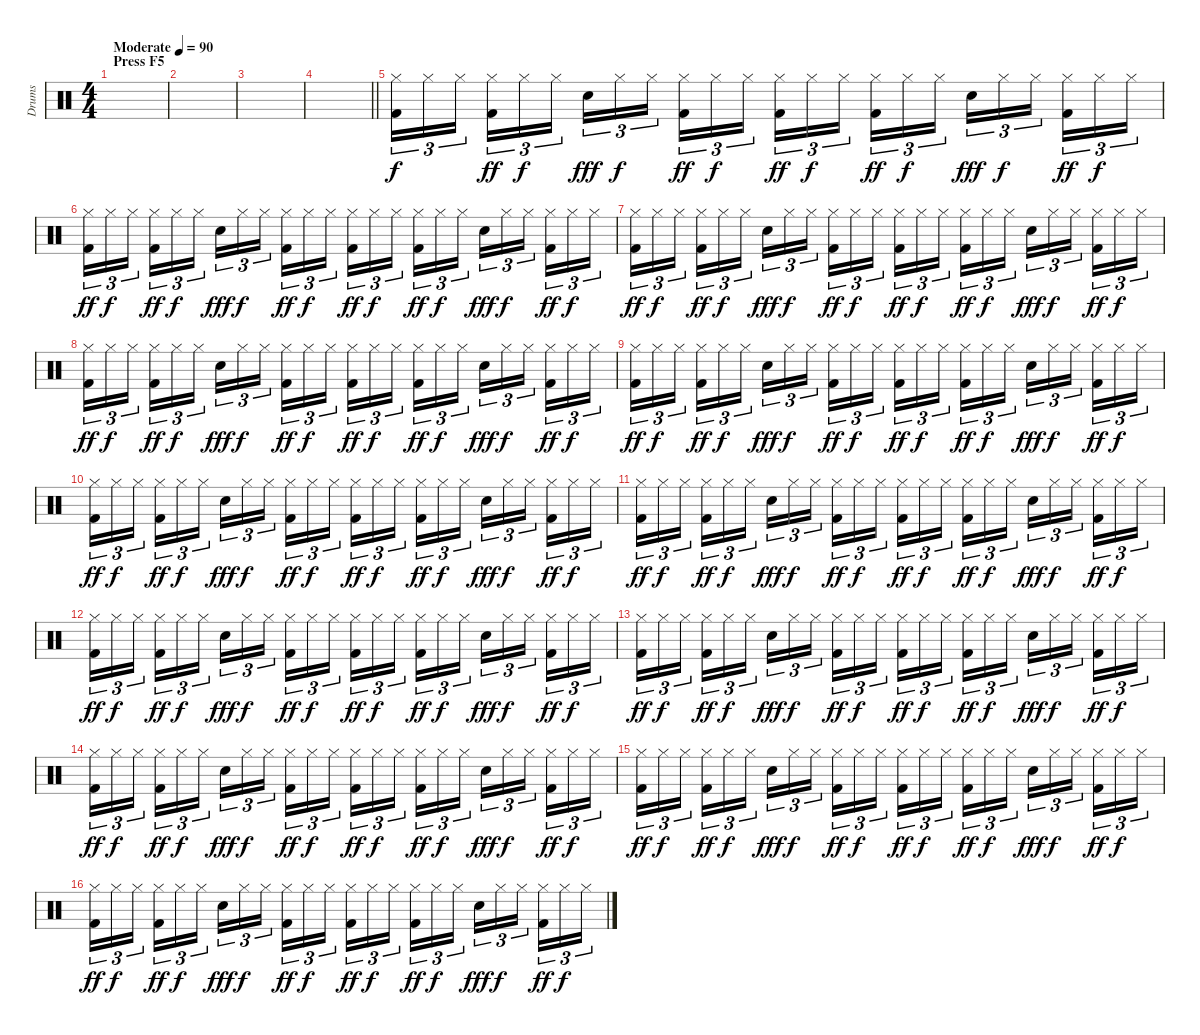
\track ("Drums" "Drums") {instrument percussion}
\staff {score}
\articulation defaults
\ts (4 4)
\section ("" "Press F5")
\tempo (90 "Moderate")
\clef neutral
\ks c
|
|
|
\barLineRight lightlight
|
\section ("" "")
("Hi-Hat (closed)" "Kick (hit) 2").16{tu (3 2)} "Hi-Hat (closed)".16{tu (3 2) dy f} "Hi-Hat (closed)".16{tu (3 2) beam splitsecondary} ("Hi-Hat (closed)" "Kick (hit) 2").16{tu (3 2) dy ff} "Hi-Hat (closed)".16{tu (3 2) dy f} "Hi-Hat (closed)".16{tu (3 2)} "Snare (hit) 2".16{tu (3 2) dy fff} "Hi-Hat (closed)".16{tu (3 2) dy f} "Hi-Hat (closed)".16{tu (3 2) beam splitsecondary} ("Hi-Hat (closed)" "Kick (hit) 2").16{tu (3 2) dy ff} "Hi-Hat (closed)".16{tu (3 2) dy f} "Hi-Hat (closed)".16{tu (3 2)} ("Hi-Hat (closed)" "Kick (hit) 2").16{tu (3 2) dy ff} "Hi-Hat (closed)".16{tu (3 2) dy f} "Hi-Hat (closed)".16{tu (3 2) beam splitsecondary} ("Hi-Hat (closed)" "Kick (hit) 2").16{tu (3 2) dy ff} "Hi-Hat (closed)".16{tu (3 2) dy f} "Hi-Hat (closed)".16{tu (3 2)} "Snare (hit) 2".16{tu (3 2) dy fff} "Hi-Hat (closed)".16{tu (3 2) dy f} "Hi-Hat (closed)".16{tu (3 2) beam splitsecondary} ("Hi-Hat (closed)" "Kick (hit) 2").16{tu (3 2) dy ff} "Hi-Hat (closed)".16{tu (3 2) dy f} "Hi-Hat (closed)".16{tu (3 2)} |
("Hi-Hat (closed)" "Kick (hit) 2").16{tu (3 2) dy ff} "Hi-Hat (closed)".16{tu (3 2) dy f} "Hi-Hat (closed)".16{tu (3 2) beam splitsecondary} ("Hi-Hat (closed)" "Kick (hit) 2").16{tu (3 2) dy ff} "Hi-Hat (closed)".16{tu (3 2) dy f} "Hi-Hat (closed)".16{tu (3 2)} "Snare (hit) 2".16{tu (3 2) dy fff} "Hi-Hat (closed)".16{tu (3 2) dy f} "Hi-Hat (closed)".16{tu (3 2) beam splitsecondary} ("Hi-Hat (closed)" "Kick (hit) 2").16{tu (3 2) dy ff} "Hi-Hat (closed)".16{tu (3 2) dy f} "Hi-Hat (closed)".16{tu (3 2)} ("Hi-Hat (closed)" "Kick (hit) 2").16{tu (3 2) dy ff} "Hi-Hat (closed)".16{tu (3 2) dy f} "Hi-Hat (closed)".16{tu (3 2) beam splitsecondary} ("Hi-Hat (closed)" "Kick (hit) 2").16{tu (3 2) dy ff} "Hi-Hat (closed)".16{tu (3 2) dy f} "Hi-Hat (closed)".16{tu (3 2)} "Snare (hit) 2".16{tu (3 2) dy fff} "Hi-Hat (closed)".16{tu (3 2) dy f} "Hi-Hat (closed)".16{tu (3 2) beam splitsecondary} ("Hi-Hat (closed)" "Kick (hit) 2").16{tu (3 2) dy ff} "Hi-Hat (closed)".16{tu (3 2) dy f} "Hi-Hat (closed)".16{tu (3 2)} |
("Hi-Hat (closed)" "Kick (hit) 2").16{tu (3 2) dy ff} "Hi-Hat (closed)".16{tu (3 2) dy f} "Hi-Hat (closed)".16{tu (3 2) beam splitsecondary} ("Hi-Hat (closed)" "Kick (hit) 2").16{tu (3 2) dy ff} "Hi-Hat (closed)".16{tu (3 2) dy f} "Hi-Hat (closed)".16{tu (3 2)} "Snare (hit) 2".16{tu (3 2) dy fff} "Hi-Hat (closed)".16{tu (3 2) dy f} "Hi-Hat (closed)".16{tu (3 2) beam splitsecondary} ("Hi-Hat (closed)" "Kick (hit) 2").16{tu (3 2) dy ff} "Hi-Hat (closed)".16{tu (3 2) dy f} "Hi-Hat (closed)".16{tu (3 2)} ("Hi-Hat (closed)" "Kick (hit) 2").16{tu (3 2) dy ff} "Hi-Hat (closed)".16{tu (3 2) dy f} "Hi-Hat (closed)".16{tu (3 2) beam splitsecondary} ("Hi-Hat (closed)" "Kick (hit) 2").16{tu (3 2) dy ff} "Hi-Hat (closed)".16{tu (3 2) dy f} "Hi-Hat (closed)".16{tu (3 2)} "Snare (hit) 2".16{tu (3 2) dy fff} "Hi-Hat (closed)".16{tu (3 2) dy f} "Hi-Hat (closed)".16{tu (3 2) beam splitsecondary} ("Hi-Hat (closed)" "Kick (hit) 2").16{tu (3 2) dy ff} "Hi-Hat (closed)".16{tu (3 2) dy f} "Hi-Hat (closed)".16{tu (3 2)} |
("Hi-Hat (closed)" "Kick (hit) 2").16{tu (3 2) dy ff} "Hi-Hat (closed)".16{tu (3 2) dy f} "Hi-Hat (closed)".16{tu (3 2) beam splitsecondary} ("Hi-Hat (closed)" "Kick (hit) 2").16{tu (3 2) dy ff} "Hi-Hat (closed)".16{tu (3 2) dy f} "Hi-Hat (closed)".16{tu (3 2)} "Snare (hit) 2".16{tu (3 2) dy fff} "Hi-Hat (closed)".16{tu (3 2) dy f} "Hi-Hat (closed)".16{tu (3 2) beam splitsecondary} ("Hi-Hat (closed)" "Kick (hit) 2").16{tu (3 2) dy ff} "Hi-Hat (closed)".16{tu (3 2) dy f} "Hi-Hat (closed)".16{tu (3 2)} ("Hi-Hat (closed)" "Kick (hit) 2").16{tu (3 2) dy ff} "Hi-Hat (closed)".16{tu (3 2) dy f} "Hi-Hat (closed)".16{tu (3 2) beam splitsecondary} ("Hi-Hat (closed)" "Kick (hit) 2").16{tu (3 2) dy ff} "Hi-Hat (closed)".16{tu (3 2) dy f} "Hi-Hat (closed)".16{tu (3 2)} "Snare (hit) 2".16{tu (3 2) dy fff} "Hi-Hat (closed)".16{tu (3 2) dy f} "Hi-Hat (closed)".16{tu (3 2) beam splitsecondary} ("Hi-Hat (closed)" "Kick (hit) 2").16{tu (3 2) dy ff} "Hi-Hat (closed)".16{tu (3 2) dy f} "Hi-Hat (closed)".16{tu (3 2)} |
("Hi-Hat (closed)" "Kick (hit) 2").16{tu (3 2) dy ff} "Hi-Hat (closed)".16{tu (3 2) dy f} "Hi-Hat (closed)".16{tu (3 2) beam splitsecondary} ("Hi-Hat (closed)" "Kick (hit) 2").16{tu (3 2) dy ff} "Hi-Hat (closed)".16{tu (3 2) dy f} "Hi-Hat (closed)".16{tu (3 2)} "Snare (hit) 2".16{tu (3 2) dy fff} "Hi-Hat (closed)".16{tu (3 2) dy f} "Hi-Hat (closed)".16{tu (3 2) beam splitsecondary} ("Hi-Hat (closed)" "Kick (hit) 2").16{tu (3 2) dy ff} "Hi-Hat (closed)".16{tu (3 2) dy f} "Hi-Hat (closed)".16{tu (3 2)} ("Hi-Hat (closed)" "Kick (hit) 2").16{tu (3 2) dy ff} "Hi-Hat (closed)".16{tu (3 2) dy f} "Hi-Hat (closed)".16{tu (3 2) beam splitsecondary} ("Hi-Hat (closed)" "Kick (hit) 2").16{tu (3 2) dy ff} "Hi-Hat (closed)".16{tu (3 2) dy f} "Hi-Hat (closed)".16{tu (3 2)} "Snare (hit) 2".16{tu (3 2) dy fff} "Hi-Hat (closed)".16{tu (3 2) dy f} "Hi-Hat (closed)".16{tu (3 2) beam splitsecondary} ("Hi-Hat (closed)" "Kick (hit) 2").16{tu (3 2) dy ff} "Hi-Hat (closed)".16{tu (3 2) dy f} "Hi-Hat (closed)".16{tu (3 2)} |
("Hi-Hat (closed)" "Kick (hit) 2").16{tu (3 2) dy ff} "Hi-Hat (closed)".16{tu (3 2) dy f} "Hi-Hat (closed)".16{tu (3 2) beam splitsecondary} ("Hi-Hat (closed)" "Kick (hit) 2").16{tu (3 2) dy ff} "Hi-Hat (closed)".16{tu (3 2) dy f} "Hi-Hat (closed)".16{tu (3 2)} "Snare (hit) 2".16{tu (3 2) dy fff} "Hi-Hat (closed)".16{tu (3 2) dy f} "Hi-Hat (closed)".16{tu (3 2) beam splitsecondary} ("Hi-Hat (closed)" "Kick (hit) 2").16{tu (3 2) dy ff} "Hi-Hat (closed)".16{tu (3 2) dy f} "Hi-Hat (closed)".16{tu (3 2)} ("Hi-Hat (closed)" "Kick (hit) 2").16{tu (3 2) dy ff} "Hi-Hat (closed)".16{tu (3 2) dy f} "Hi-Hat (closed)".16{tu (3 2) beam splitsecondary} ("Hi-Hat (closed)" "Kick (hit) 2").16{tu (3 2) dy ff} "Hi-Hat (closed)".16{tu (3 2) dy f} "Hi-Hat (closed)".16{tu (3 2)} "Snare (hit) 2".16{tu (3 2) dy fff} "Hi-Hat (closed)".16{tu (3 2) dy f} "Hi-Hat (closed)".16{tu (3 2) beam splitsecondary} ("Hi-Hat (closed)" "Kick (hit) 2").16{tu (3 2) dy ff} "Hi-Hat (closed)".16{tu (3 2) dy f} "Hi-Hat (closed)".16{tu (3 2)} |
("Hi-Hat (closed)" "Kick (hit) 2").16{tu (3 2) dy ff} "Hi-Hat (closed)".16{tu (3 2) dy f} "Hi-Hat (closed)".16{tu (3 2) beam splitsecondary} ("Hi-Hat (closed)" "Kick (hit) 2").16{tu (3 2) dy ff} "Hi-Hat (closed)".16{tu (3 2) dy f} "Hi-Hat (closed)".16{tu (3 2)} "Snare (hit) 2".16{tu (3 2) dy fff} "Hi-Hat (closed)".16{tu (3 2) dy f} "Hi-Hat (closed)".16{tu (3 2) beam splitsecondary} ("Hi-Hat (closed)" "Kick (hit) 2").16{tu (3 2) dy ff} "Hi-Hat (closed)".16{tu (3 2) dy f} "Hi-Hat (closed)".16{tu (3 2)} ("Hi-Hat (closed)" "Kick (hit) 2").16{tu (3 2) dy ff} "Hi-Hat (closed)".16{tu (3 2) dy f} "Hi-Hat (closed)".16{tu (3 2) beam splitsecondary} ("Hi-Hat (closed)" "Kick (hit) 2").16{tu (3 2) dy ff} "Hi-Hat (closed)".16{tu (3 2) dy f} "Hi-Hat (closed)".16{tu (3 2)} "Snare (hit) 2".16{tu (3 2) dy fff} "Hi-Hat (closed)".16{tu (3 2) dy f} "Hi-Hat (closed)".16{tu (3 2) beam splitsecondary} ("Hi-Hat (closed)" "Kick (hit) 2").16{tu (3 2) dy ff} "Hi-Hat (closed)".16{tu (3 2) dy f} "Hi-Hat (closed)".16{tu (3 2)} |
("Hi-Hat (closed)" "Kick (hit) 2").16{tu (3 2) dy ff} "Hi-Hat (closed)".16{tu (3 2) dy f} "Hi-Hat (closed)".16{tu (3 2) beam splitsecondary} ("Hi-Hat (closed)" "Kick (hit) 2").16{tu (3 2) dy ff} "Hi-Hat (closed)".16{tu (3 2) dy f} "Hi-Hat (closed)".16{tu (3 2)} "Snare (hit) 2".16{tu (3 2) dy fff} "Hi-Hat (closed)".16{tu (3 2) dy f} "Hi-Hat (closed)".16{tu (3 2) beam splitsecondary} ("Hi-Hat (closed)" "Kick (hit) 2").16{tu (3 2) dy ff} "Hi-Hat (closed)".16{tu (3 2) dy f} "Hi-Hat (closed)".16{tu (3 2)} ("Hi-Hat (closed)" "Kick (hit) 2").16{tu (3 2) dy ff} "Hi-Hat (closed)".16{tu (3 2) dy f} "Hi-Hat (closed)".16{tu (3 2) beam splitsecondary} ("Hi-Hat (closed)" "Kick (hit) 2").16{tu (3 2) dy ff} "Hi-Hat (closed)".16{tu (3 2) dy f} "Hi-Hat (closed)".16{tu (3 2)} "Snare (hit) 2".16{tu (3 2) dy fff} "Hi-Hat (closed)".16{tu (3 2) dy f} "Hi-Hat (closed)".16{tu (3 2) beam splitsecondary} ("Hi-Hat (closed)" "Kick (hit) 2").16{tu (3 2) dy ff} "Hi-Hat (closed)".16{tu (3 2) dy f} "Hi-Hat (closed)".16{tu (3 2)} |
("Hi-Hat (closed)" "Kick (hit) 2").16{tu (3 2) dy ff} "Hi-Hat (closed)".16{tu (3 2) dy f} "Hi-Hat (closed)".16{tu (3 2) beam splitsecondary} ("Hi-Hat (closed)" "Kick (hit) 2").16{tu (3 2) dy ff} "Hi-Hat (closed)".16{tu (3 2) dy f} "Hi-Hat (closed)".16{tu (3 2)} "Snare (hit) 2".16{tu (3 2) dy fff} "Hi-Hat (closed)".16{tu (3 2) dy f} "Hi-Hat (closed)".16{tu (3 2) beam splitsecondary} ("Hi-Hat (closed)" "Kick (hit) 2").16{tu (3 2) dy ff} "Hi-Hat (closed)".16{tu (3 2) dy f} "Hi-Hat (closed)".16{tu (3 2)} ("Hi-Hat (closed)" "Kick (hit) 2").16{tu (3 2) dy ff} "Hi-Hat (closed)".16{tu (3 2) dy f} "Hi-Hat (closed)".16{tu (3 2) beam splitsecondary} ("Hi-Hat (closed)" "Kick (hit) 2").16{tu (3 2) dy ff} "Hi-Hat (closed)".16{tu (3 2) dy f} "Hi-Hat (closed)".16{tu (3 2)} "Snare (hit) 2".16{tu (3 2) dy fff} "Hi-Hat (closed)".16{tu (3 2) dy f} "Hi-Hat (closed)".16{tu (3 2) beam splitsecondary} ("Hi-Hat (closed)" "Kick (hit) 2").16{tu (3 2) dy ff} "Hi-Hat (closed)".16{tu (3 2) dy f} "Hi-Hat (closed)".16{tu (3 2)} |
("Hi-Hat (closed)" "Kick (hit) 2").16{tu (3 2) dy ff} "Hi-Hat (closed)".16{tu (3 2) dy f} "Hi-Hat (closed)".16{tu (3 2) beam splitsecondary} ("Hi-Hat (closed)" "Kick (hit) 2").16{tu (3 2) dy ff} "Hi-Hat (closed)".16{tu (3 2) dy f} "Hi-Hat (closed)".16{tu (3 2)} "Snare (hit) 2".16{tu (3 2) dy fff} "Hi-Hat (closed)".16{tu (3 2) dy f} "Hi-Hat (closed)".16{tu (3 2) beam splitsecondary} ("Hi-Hat (closed)" "Kick (hit) 2").16{tu (3 2) dy ff} "Hi-Hat (closed)".16{tu (3 2) dy f} "Hi-Hat (closed)".16{tu (3 2)} ("Hi-Hat (closed)" "Kick (hit) 2").16{tu (3 2) dy ff} "Hi-Hat (closed)".16{tu (3 2) dy f} "Hi-Hat (closed)".16{tu (3 2) beam splitsecondary} ("Hi-Hat (closed)" "Kick (hit) 2").16{tu (3 2) dy ff} "Hi-Hat (closed)".16{tu (3 2) dy f} "Hi-Hat (closed)".16{tu (3 2)} "Snare (hit) 2".16{tu (3 2) dy fff} "Hi-Hat (closed)".16{tu (3 2) dy f} "Hi-Hat (closed)".16{tu (3 2) beam splitsecondary} ("Hi-Hat (closed)" "Kick (hit) 2").16{tu (3 2) dy ff} "Hi-Hat (closed)".16{tu (3 2) dy f} "Hi-Hat (closed)".16{tu (3 2)} |
("Hi-Hat (closed)" "Kick (hit) 2").16{tu (3 2) dy ff} "Hi-Hat (closed)".16{tu (3 2) dy f} "Hi-Hat (closed)".16{tu (3 2) beam splitsecondary} ("Hi-Hat (closed)" "Kick (hit) 2").16{tu (3 2) dy ff} "Hi-Hat (closed)".16{tu (3 2) dy f} "Hi-Hat (closed)".16{tu (3 2)} "Snare (hit) 2".16{tu (3 2) dy fff} "Hi-Hat (closed)".16{tu (3 2) dy f} "Hi-Hat (closed)".16{tu (3 2) beam splitsecondary} ("Hi-Hat (closed)" "Kick (hit) 2").16{tu (3 2) dy ff} "Hi-Hat (closed)".16{tu (3 2) dy f} "Hi-Hat (closed)".16{tu (3 2)} ("Hi-Hat (closed)" "Kick (hit) 2").16{tu (3 2) dy ff} "Hi-Hat (closed)".16{tu (3 2) dy f} "Hi-Hat (closed)".16{tu (3 2) beam splitsecondary} ("Hi-Hat (closed)" "Kick (hit) 2").16{tu (3 2) dy ff} "Hi-Hat (closed)".16{tu (3 2) dy f} "Hi-Hat (closed)".16{tu (3 2)} "Snare (hit) 2".16{tu (3 2) dy fff} "Hi-Hat (closed)".16{tu (3 2) dy f} "Hi-Hat (closed)".16{tu (3 2) beam splitsecondary} ("Hi-Hat (closed)" "Kick (hit) 2").16{tu (3 2) dy ff} "Hi-Hat (closed)".16{tu (3 2) dy f} "Hi-Hat (closed)".16{tu (3 2)} |
("Hi-Hat (closed)" "Kick (hit) 2").16{tu (3 2) dy ff} "Hi-Hat (closed)".16{tu (3 2) dy f} "Hi-Hat (closed)".16{tu (3 2) beam splitsecondary} ("Hi-Hat (closed)" "Kick (hit) 2").16{tu (3 2) dy ff} "Hi-Hat (closed)".16{tu (3 2) dy f} "Hi-Hat (closed)".16{tu (3 2)} "Snare (hit) 2".16{tu (3 2) dy fff} "Hi-Hat (closed)".16{tu (3 2) dy f} "Hi-Hat (closed)".16{tu (3 2) beam splitsecondary} ("Hi-Hat (closed)" "Kick (hit) 2").16{tu (3 2) dy ff} "Hi-Hat (closed)".16{tu (3 2) dy f} "Hi-Hat (closed)".16{tu (3 2)} ("Hi-Hat (closed)" "Kick (hit) 2").16{tu (3 2) dy ff} "Hi-Hat (closed)".16{tu (3 2) dy f} "Hi-Hat (closed)".16{tu (3 2) beam splitsecondary} ("Hi-Hat (closed)" "Kick (hit) 2").16{tu (3 2) dy ff} "Hi-Hat (closed)".16{tu (3 2) dy f} "Hi-Hat (closed)".16{tu (3 2)} "Snare (hit) 2".16{tu (3 2) dy fff} "Hi-Hat (closed)".16{tu (3 2) dy f} "Hi-Hat (closed)".16{tu (3 2) beam splitsecondary} ("Hi-Hat (closed)" "Kick (hit) 2").16{tu (3 2) dy ff} "Hi-Hat (closed)".16{tu (3 2) dy f} "Hi-Hat (closed)".16{tu (3 2)}
